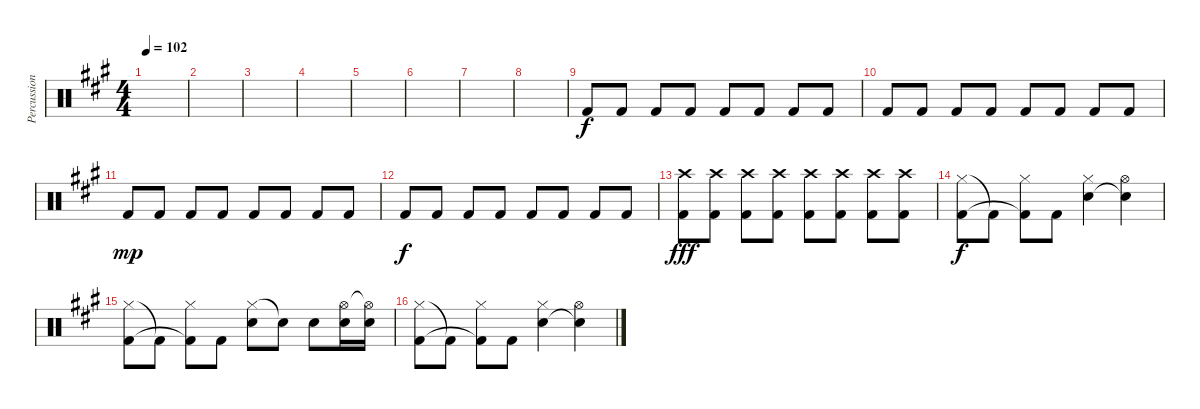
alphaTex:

\track ("Percussion" "Percussion") {instrument percussion}
\staff {score}
\articulation defaults
\ts (4 4)
\tempo 102
\clef neutral
\ks a
|
|
|
|
|
|
|
|
"Kick (hit) 2".8 "Kick (hit) 2".8 "Kick (hit) 2".8 "Kick (hit) 2".8 "Kick (hit) 2".8 "Kick (hit) 2".8 "Kick (hit) 2".8 "Kick (hit) 2".8 |
"Kick (hit) 2".8 "Kick (hit) 2".8 "Kick (hit) 2".8 "Kick (hit) 2".8 "Kick (hit) 2".8 "Kick (hit) 2".8 "Kick (hit) 2".8 "Kick (hit) 2".8 |
"Kick (hit) 2".8{dy mp} "Kick (hit) 2".8 "Kick (hit) 2".8 "Kick (hit) 2".8 "Kick (hit) 2".8 "Kick (hit) 2".8 "Kick (hit) 2".8 "Kick (hit) 2".8 |
"Kick (hit) 2".8{dy f} "Kick (hit) 2".8 "Kick (hit) 2".8 "Kick (hit) 2".8 "Kick (hit) 2".8 "Kick (hit) 2".8 "Kick (hit) 2".8 "Kick (hit) 2".8 |
("Crash high (hit)" "Kick (hit) 2").8{dy fff} ("Crash high (hit)" "Kick (hit) 2").8 ("Crash high (hit)" "Kick (hit) 2").8 ("Crash high (hit)" "Kick (hit) 2").8 ("Crash high (hit)" "Kick (hit) 2").8 ("Crash high (hit)" "Kick (hit) 2").8 ("Crash high (hit)" "Kick (hit) 2").8 ("Crash high (hit)" "Kick (hit) 2").8 |
("Hi-Hat (closed)" "Kick (hit) 2").8{dy f} "Kick (hit) 2"{t}.8 ("Hi-Hat (closed)" "Kick (hit) 2"{t}).8 "Kick (hit) 2".8 ("Hi-Hat (closed)" "Electric Snare (hit)").4 ("Hi-Hat (open)" "Electric Snare (hit)"{t}).4 |
("Hi-Hat (closed)" "Kick (hit) 2").8 "Kick (hit) 2"{t}.8 ("Hi-Hat (closed)" "Kick (hit) 2"{t}).8 "Kick (hit) 2".8 ("Hi-Hat (closed)" "Electric Snare (hit)").8 "Electric Snare (hit)"{t}.8 "Electric Snare (hit)".8 ("Hi-Hat (open)" "Electric Snare (hit)").16 ("Hi-Hat (open)"{t} "Electric Snare (hit)").16 |
("Hi-Hat (closed)" "Kick (hit) 2").8 "Kick (hit) 2"{t}.8 ("Hi-Hat (closed)" "Kick (hit) 2"{t}).8 "Kick (hit) 2".8 ("Hi-Hat (closed)" "Electric Snare (hit)").4 ("Hi-Hat (open)" "Electric Snare (hit)"{t}).4
